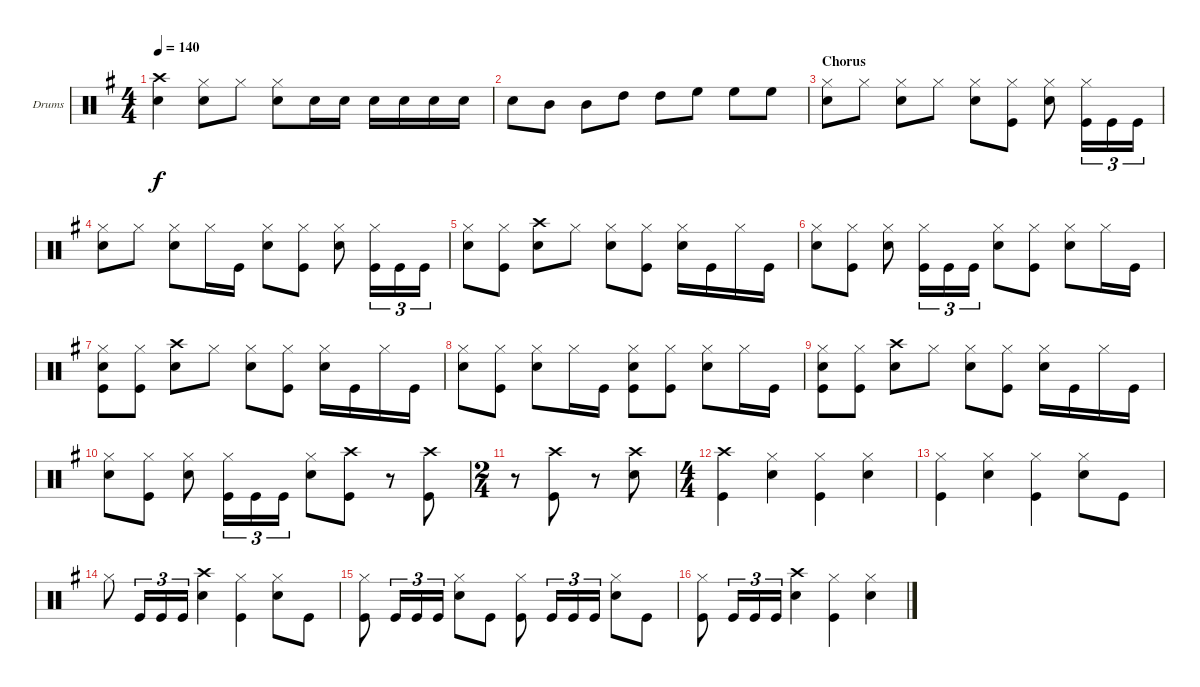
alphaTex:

\bracketExtendMode groupsimilarinstruments
\firstSystemTrackNameOrientation horizontal
\otherSystemsTrackNameOrientation horizontal
\track ("Drumkit" "Drums") {instrument percussion}
\staff {score}
\articulation defaults
\ts (4 4)
\tempo 140
\clef neutral
\scale
1.04288
\ks g
("Crash high (hit)" "Snare (hit) 2").4{dy f} ("Hi-Hat (closed)" "Snare (hit) 2").8 "Hi-Hat (closed)".8 ("Snare (hit) 2" "Hi-Hat (closed)").8 "Snare (hit) 2".16 "Snare (hit) 2".16 "Snare (hit) 2".16 "Snare (hit) 2".16 "Snare (hit) 2".16 "Snare (hit) 2".16 |
\scale
0.957125 "Snare (hit) 2".8 "Mid Tom (hit)".8 "Mid Tom (hit)".8 "High Tom (hit)".8 "High Tom (hit)".8 "High Floor Tom (hit)".8 "High Floor Tom (hit)".8 "High Floor Tom (hit)".8 |
\section ("" "Chorus")
\scale
1.04288 ("Hi-Hat (closed)" "Snare (hit) 2").8 "Hi-Hat (closed)".8 ("Snare (hit) 2" "Hi-Hat (closed)").8 "Hi-Hat (closed)".8 ("Snare (hit) 2" "Hi-Hat (closed)").8 ("Kick (hit)" "Hi-Hat (closed)").8 ("Snare (hit) 2" "Hi-Hat (closed)").8 ("Kick (hit)" "Hi-Hat (closed)").16{tu (3 2)} "Kick (hit)".16{tu (3 2)} "Kick (hit)".16{tu (3 2)} |
\scale
0.957125 ("Hi-Hat (closed)" "Snare (hit) 2").8 "Hi-Hat (closed)".8 ("Snare (hit) 2" "Hi-Hat (closed)").8 "Hi-Hat (closed)".16 "Kick (hit)".16 ("Snare (hit) 2" "Hi-Hat (closed)").8 ("Kick (hit)" "Hi-Hat (closed)").8 ("Snare (hit) 2" "Hi-Hat (closed)").8 ("Kick (hit)" "Hi-Hat (closed)").16{tu (3 2)} "Kick (hit)".16{tu (3 2)} "Kick (hit)".16{tu (3 2)} |
\scale
1.04288 ("Hi-Hat (closed)" "Snare (hit) 2").8 ("Kick (hit)" "Hi-Hat (closed)").8 ("Crash high (hit)" "Snare (hit) 2").8 "Hi-Hat (closed)".8 ("Snare (hit) 2" "Hi-Hat (closed)").8 ("Kick (hit)" "Hi-Hat (closed)").8 ("Snare (hit) 2" "Hi-Hat (closed)").16 "Kick (hit)".16 "Hi-Hat (closed)".16 "Kick (hit)".16 |
\scale
0.957125 ("Snare (hit) 2" "Hi-Hat (closed)").8 ("Hi-Hat (closed)" "Kick (hit)").8 ("Snare (hit) 2" "Hi-Hat (closed)").8 ("Hi-Hat (closed)" "Kick (hit)").16{tu (3 2)} "Kick (hit)".16{tu (3 2)} "Kick (hit)".16{tu (3 2)} ("Snare (hit) 2" "Hi-Hat (closed)").8 ("Kick (hit)" "Hi-Hat (closed)").8 ("Hi-Hat (closed)" "Snare (hit) 2").8 "Hi-Hat (closed)".16 "Kick (hit)".16 |
\scale
1.04288 ("Kick (hit)" "Snare (hit) 2" "Hi-Hat (closed)").8 ("Kick (hit)" "Hi-Hat (closed)").8 ("Crash high (hit)" "Snare (hit) 2").8 "Hi-Hat (closed)".8 ("Snare (hit) 2" "Hi-Hat (closed)").8 ("Kick (hit)" "Hi-Hat (closed)").8 ("Hi-Hat (closed)" "Snare (hit) 2").16 "Kick (hit)".16 "Hi-Hat (closed)".16 "Kick (hit)".16 |
\scale
0.957125 ("Hi-Hat (closed)" "Snare (hit) 2").8 ("Kick (hit)" "Hi-Hat (closed)").8 ("Snare (hit) 2" "Hi-Hat (closed)").8 "Hi-Hat (closed)".16 "Kick (hit)".16 ("Kick (hit)" "Snare (hit) 2" "Hi-Hat (closed)").8 ("Kick (hit)" "Hi-Hat (closed)").8 ("Snare (hit) 2" "Hi-Hat (closed)").8 "Hi-Hat (closed)".16 "Kick (hit)".16 |
\scale
1.04288 ("Kick (hit)" "Snare (hit) 2" "Hi-Hat (closed)").8 ("Kick (hit)" "Hi-Hat (closed)").8 ("Crash high (hit)" "Snare (hit) 2").8 "Hi-Hat (closed)".8 ("Snare (hit) 2" "Hi-Hat (closed)").8 ("Kick (hit)" "Hi-Hat (closed)").8 ("Hi-Hat (closed)" "Snare (hit) 2").16 "Kick (hit)".16 "Hi-Hat (closed)".16 "Kick (hit)".16 |
\scale
0.957125 ("Snare (hit) 2" "Hi-Hat (closed)").8 ("Hi-Hat (closed)" "Kick (hit)").8 ("Snare (hit) 2" "Hi-Hat (closed)").8 ("Hi-Hat (closed)" "Kick (hit)").16{tu (3 2)} "Kick (hit)".16{tu (3 2)} "Kick (hit)".16{tu (3 2)} ("Hi-Hat (closed)" "Snare (hit) 2").8 ("Kick (hit)" "Crash high (hit)").8 r.8 ("Crash high (hit)" "Kick (hit)").8 |
\ts (2 4)
\scale
1.07314 r.8 ("Kick (hit)" "Crash high (hit)").8 r.8 ("Snare (hit) 2" "Crash high (hit)").8 |
\ts (4 4)
\scale
0.92686 ("Kick (hit)" "Crash high (hit)").4 ("Hi-Hat (closed)" "Snare (hit) 2").4 ("Hi-Hat (closed)" "Kick (hit)").4 ("Snare (hit) 2" "Hi-Hat (closed)").4 |
\scale
1.04288 ("Hi-Hat (closed)" "Kick (hit)").4 ("Hi-Hat (closed)" "Snare (hit) 2").4 ("Hi-Hat (closed)" "Kick (hit)").4 ("Hi-Hat (closed)" "Snare (hit) 2").8 "Kick (hit)".8 |
\scale
0.957125 "Hi-Hat (closed)".8 "Kick (hit)".16{tu (3 2)} "Kick (hit)".16{tu (3 2)} "Kick (hit)".16{tu (3 2)} ("Snare (hit) 2" "Crash high (hit)").4 ("Hi-Hat (closed)" "Kick (hit)").4 ("Snare (hit) 2" "Hi-Hat (closed)").8 "Kick (hit)".8 |
\scale
1.04288 ("Kick (hit)" "Hi-Hat (closed)").8 "Kick (hit)".16{tu (3 2)} "Kick (hit)".16{tu (3 2)} "Kick (hit)".16{tu (3 2)} ("Snare (hit) 2" "Hi-Hat (closed)").8 "Kick (hit)".8 ("Kick (hit)" "Hi-Hat (closed)").8 "Kick (hit)".16{tu (3 2)} "Kick (hit)".16{tu (3 2)} "Kick (hit)".16{tu (3 2)} ("Snare (hit) 2" "Hi-Hat (closed)").8 "Kick (hit)".8 |
\scale
0.957125 ("Hi-Hat (closed)" "Kick (hit)").8 "Kick (hit)".16{tu (3 2)} "Kick (hit)".16{tu (3 2)} "Kick (hit)".16{tu (3 2)} ("Snare (hit) 2" "Crash high (hit)").4 ("Kick (hit)" "Hi-Hat (closed)").4 ("Hi-Hat (closed)" "Snare (hit) 2").4
